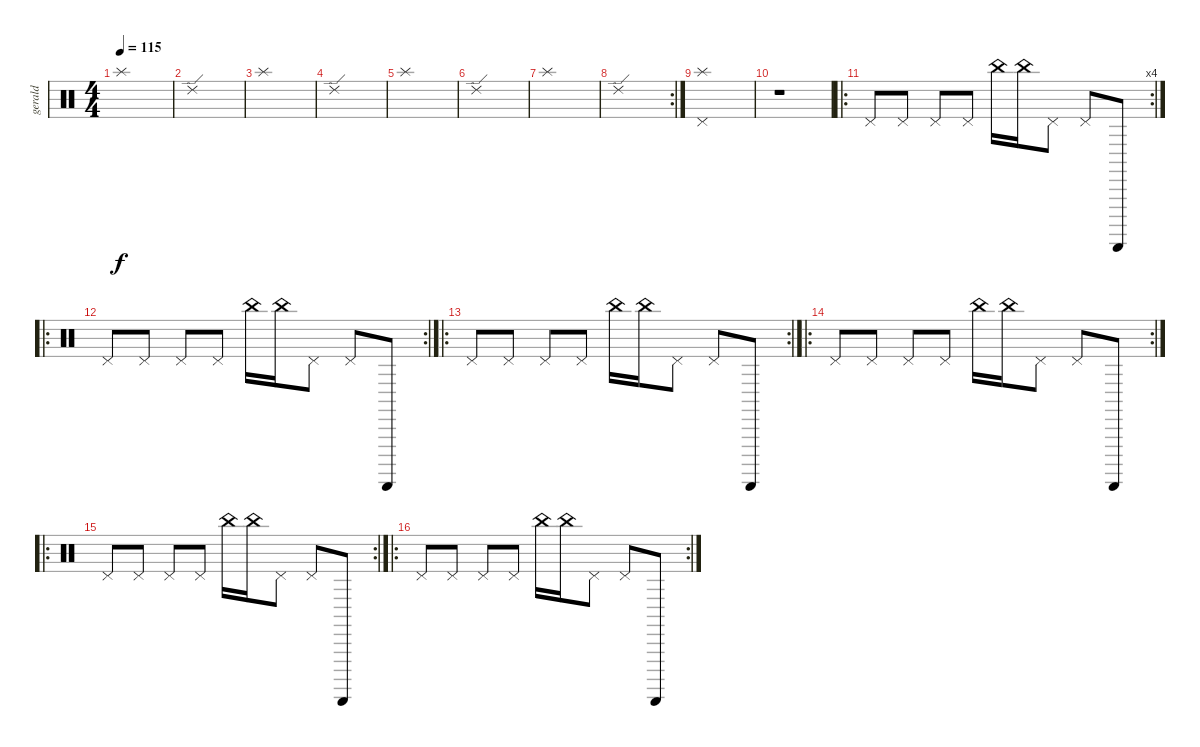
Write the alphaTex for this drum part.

\track ("gerald" "gerald") {instrument percussion}
\staff {score}
\articulation defaults
\ts (4 4)
\tempo 115
\clef neutral
\ks c "Splash (hit)".1{dy f}
|
"Ride (edge) 2".1 |
"Splash (hit)".1 |
"Ride (edge) 2".1 |
"Splash (hit)".1 |
"Ride (edge) 2".1 |
"Splash (hit)".1 |
\rc 2 "Ride (edge) 2".1
|
("Pedal Hi-Hat (hit)" "Splash (hit)").1 |
r.1 |
\ro
\rc 4 "Pedal Hi-Hat (hit)".8 "Pedal Hi-Hat (hit)".8 "Pedal Hi-Hat (hit)".8 "Pedal Hi-Hat (hit)".8 "China (hit)".16 "China (hit)".16 "Pedal Hi-Hat (hit)".8 "Pedal Hi-Hat (hit)".8 "Guiro (scrap-return)".8
|
\ro
\rc 2 "Pedal Hi-Hat (hit)".8 "Pedal Hi-Hat (hit)".8 "Pedal Hi-Hat (hit)".8 "Pedal Hi-Hat (hit)".8 "China (hit)".16 "China (hit)".16 "Pedal Hi-Hat (hit)".8 "Pedal Hi-Hat (hit)".8 "Guiro (scrap-return)".8
|
\ro
\rc 2 "Pedal Hi-Hat (hit)".8 "Pedal Hi-Hat (hit)".8 "Pedal Hi-Hat (hit)".8 "Pedal Hi-Hat (hit)".8 "China (hit)".16 "China (hit)".16 "Pedal Hi-Hat (hit)".8 "Pedal Hi-Hat (hit)".8 "Guiro (scrap-return)".8
|
\ro
\rc 2 "Pedal Hi-Hat (hit)".8 "Pedal Hi-Hat (hit)".8 "Pedal Hi-Hat (hit)".8 "Pedal Hi-Hat (hit)".8 "China (hit)".16 "China (hit)".16 "Pedal Hi-Hat (hit)".8 "Pedal Hi-Hat (hit)".8 "Guiro (scrap-return)".8
|
\ro
\rc 2 "Pedal Hi-Hat (hit)".8 "Pedal Hi-Hat (hit)".8 "Pedal Hi-Hat (hit)".8 "Pedal Hi-Hat (hit)".8 "China (hit)".16 "China (hit)".16 "Pedal Hi-Hat (hit)".8 "Pedal Hi-Hat (hit)".8 "Guiro (scrap-return)".8
|
\ro
\rc 2 "Pedal Hi-Hat (hit)".8 "Pedal Hi-Hat (hit)".8 "Pedal Hi-Hat (hit)".8 "Pedal Hi-Hat (hit)".8 "China (hit)".16 "China (hit)".16 "Pedal Hi-Hat (hit)".8 "Pedal Hi-Hat (hit)".8 "Guiro (scrap-return)".8
